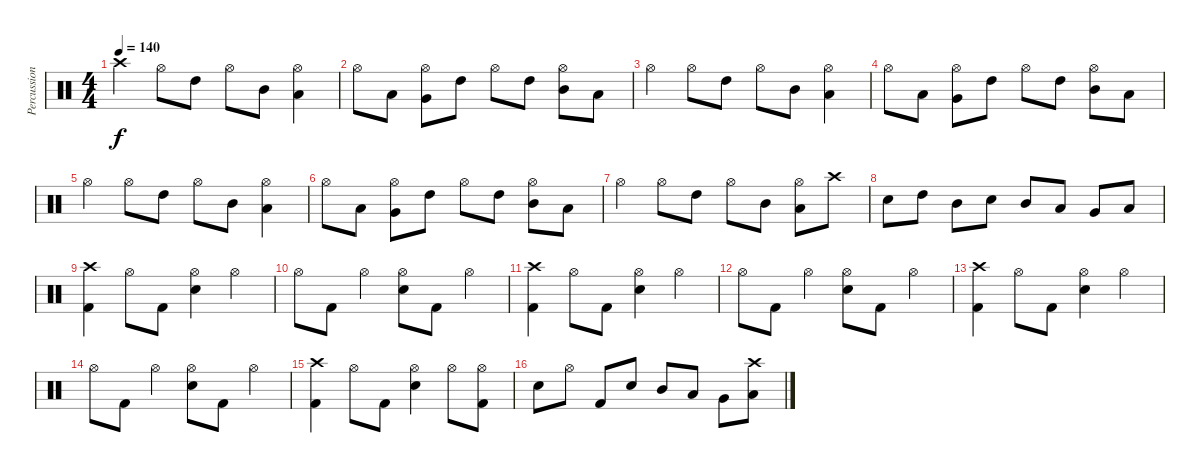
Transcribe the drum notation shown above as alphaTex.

\track ("Percussion" "Percussion") {instrument percussion}
\staff {score}
\articulation defaults
\ts (4 4)
\tempo 140
\clef neutral
\ks c "Crash high (hit)".4{dy f} "Hi-Hat (open)".8 "High Tom (hit)".8 "Hi-Hat (open)".8 "Mid Tom (hit)".8
("Hi-Hat (open)" "Low Tom (hit)").4 |
"Hi-Hat (open)".8 "Low Tom (hit)".8 ("Hi-Hat (open)" "Very Low Tom (hit)").8 "High Tom (hit)".8 "Hi-Hat (open)".8 "High Tom (hit)".8 ("Hi-Hat (open)" "Mid Tom (hit)").8 "Low Tom (hit)".8 |
"Hi-Hat (open)".4 "Hi-Hat (open)".8 "High Tom (hit)".8 "Hi-Hat (open)".8 "Mid Tom (hit)".8 ("Hi-Hat (open)" "Low Tom (hit)").4 |
"Hi-Hat (open)".8 "Low Tom (hit)".8 ("Hi-Hat (open)" "Very Low Tom (hit)").8 "High Tom (hit)".8 "Hi-Hat (open)".8 "High Tom (hit)".8 ("Hi-Hat (open)" "Mid Tom (hit)").8 "Low Tom (hit)".8 |
"Hi-Hat (open)".4 "Hi-Hat (open)".8 "High Tom (hit)".8 "Hi-Hat (open)".8 "Mid Tom (hit)".8 ("Hi-Hat (open)" "Low Tom (hit)").4 |
"Hi-Hat (open)".8 "Low Tom (hit)".8 ("Hi-Hat (open)" "Very Low Tom (hit)").8 "High Tom (hit)".8 "Hi-Hat (open)".8 "High Tom (hit)".8 ("Hi-Hat (open)" "Mid Tom (hit)").8 "Low Tom (hit)".8 |
"Hi-Hat (open)".4 "Hi-Hat (open)".8 "High Tom (hit)".8 "Hi-Hat (open)".8 "Mid Tom (hit)".8 ("Hi-Hat (open)" "Low Tom (hit)").8 "Crash high (hit)".8 |
"Snare (hit) 2".8 "High Tom (hit)".8 "Mid Tom (hit)".8 "Snare (hit) 2".8 "Mid Tom (hit)".8 "Low Tom (hit)".8 "Very Low Tom (hit)".8 "Low Floor Tom (hit)".8 |
("Crash high (hit)" "Kick (hit) 2").4 "Hi-Hat (open)".8 "Kick (hit) 2".8 ("Hi-Hat (open)" "Snare (hit) 2").4 "Hi-Hat (open)".4 |
"Hi-Hat (open)".8 "Kick (hit) 2".8 "Hi-Hat (open)".4 ("Hi-Hat (open)" "Snare (hit) 2").8 "Kick (hit) 2".8 "Hi-Hat (open)".4 |
("Crash high (hit)" "Kick (hit) 2").4 "Hi-Hat (open)".8 "Kick (hit) 2".8 ("Hi-Hat (open)" "Snare (hit) 2").4 "Hi-Hat (open)".4 |
"Hi-Hat (open)".8 "Kick (hit) 2".8 "Hi-Hat (open)".4 ("Hi-Hat (open)" "Snare (hit) 2").8 "Kick (hit) 2".8 "Hi-Hat (open)".4 |
("Crash high (hit)" "Kick (hit) 2").4 "Hi-Hat (open)".8 "Kick (hit) 2".8 ("Hi-Hat (open)" "Snare (hit) 2").4 "Hi-Hat (open)".4 |
"Hi-Hat (open)".8 "Kick (hit) 2".8 "Hi-Hat (open)".4 ("Hi-Hat (open)" "Snare (hit) 2").8 "Kick (hit) 2".8 "Hi-Hat (open)".4 |
("Crash high (hit)" "Kick (hit) 2").4 "Hi-Hat (open)".8 "Kick (hit) 2".8 ("Hi-Hat (open)" "Snare (hit) 2").4 "Hi-Hat (open)".8 ("Hi-Hat (open)" "Kick (hit) 2").8 |
"Snare (hit) 2".8 "Hi-Hat (open)".8 "Kick (hit) 2".8 "Snare (hit) 2".8 "Mid Tom (hit)".8 "Low Tom (hit)".8 "Very Low Tom (hit)".8 ("Crash high (hit)" "Low Floor Tom (hit)").8
